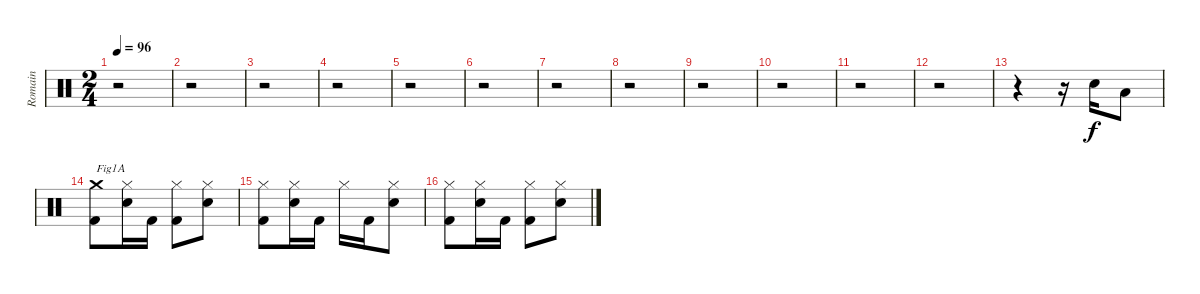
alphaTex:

\track ("Romain" "Romain") {instrument percussion}
\staff {score}
\articulation defaults
\ts (2 4)
\tempo 96
\clef neutral
\ks c
r.2{dy f} |
r.2 |
r.2 |
r.2 |
r.2 |
r.2 |
r.2 |
r.2 |
r.2 |
r.2 |
r.2 |
r.2 |
r.4 r.16 "Electric Snare (hit)".16 "Low Tom (hit)".8 |
("Kick (hit) 2" "Crash medium (hit)").8{txt "Fig1A"} ("Electric Snare (hit)" "Hi-Hat (closed)").16 "Kick (hit) 2".16 ("Kick (hit) 2" "Hi-Hat (closed)").8 ("Electric Snare (hit)" "Hi-Hat (closed)").8 |
("Kick (hit) 2" "Hi-Hat (closed)").8 ("Electric Snare (hit)" "Hi-Hat (closed)").16 "Kick (hit) 2".16 "Hi-Hat (closed)".16 "Kick (hit) 2".16 ("Electric Snare (hit)" "Hi-Hat (closed)").8 |
("Kick (hit) 2" "Hi-Hat (closed)").8 ("Electric Snare (hit)" "Hi-Hat (closed)").16 "Kick (hit) 2".16 ("Kick (hit) 2" "Hi-Hat (closed)").8 ("Electric Snare (hit)" "Hi-Hat (closed)").8
